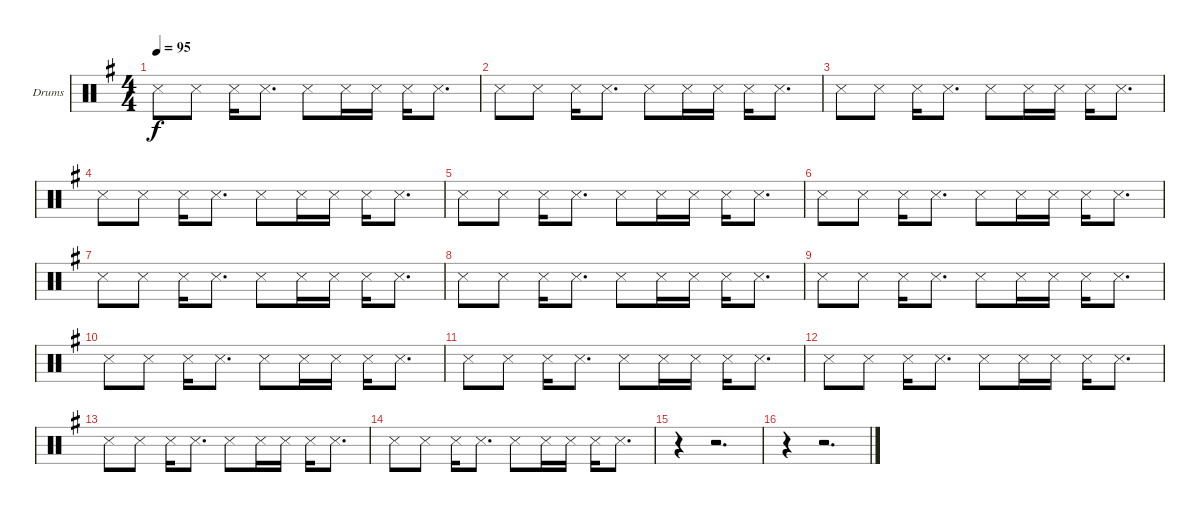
\bracketExtendMode groupsimilarinstruments
\firstSystemTrackNameOrientation horizontal
\otherSystemsTrackNameOrientation horizontal
\track ("Drumkit" "Drums") {instrument percussion}
\staff {score}
\articulation defaults
\ts (4 4)
\tempo 95
\clef neutral
\ks g "Snare (side stick) 3".8{dy f} "Snare (side stick) 3".8 "Snare (side stick) 3".16 "Snare (side stick) 3".8{d} "Snare (side stick) 3".8 "Snare (side stick) 3".16 "Snare (side stick) 3".16 "Snare (side stick) 3".16 "Snare (side stick) 3".8{d}
|
"Snare (side stick) 3".8 "Snare (side stick) 3".8 "Snare (side stick) 3".16 "Snare (side stick) 3".8{d} "Snare (side stick) 3".8 "Snare (side stick) 3".16 "Snare (side stick) 3".16 "Snare (side stick) 3".16 "Snare (side stick) 3".8{d} |
"Snare (side stick) 3".8 "Snare (side stick) 3".8 "Snare (side stick) 3".16 "Snare (side stick) 3".8{d} "Snare (side stick) 3".8 "Snare (side stick) 3".16 "Snare (side stick) 3".16 "Snare (side stick) 3".16 "Snare (side stick) 3".8{d} |
"Snare (side stick) 3".8 "Snare (side stick) 3".8 "Snare (side stick) 3".16 "Snare (side stick) 3".8{d} "Snare (side stick) 3".8 "Snare (side stick) 3".16 "Snare (side stick) 3".16 "Snare (side stick) 3".16 "Snare (side stick) 3".8{d} |
"Snare (side stick) 3".8 "Snare (side stick) 3".8 "Snare (side stick) 3".16 "Snare (side stick) 3".8{d} "Snare (side stick) 3".8 "Snare (side stick) 3".16 "Snare (side stick) 3".16 "Snare (side stick) 3".16 "Snare (side stick) 3".8{d} |
"Snare (side stick) 3".8 "Snare (side stick) 3".8 "Snare (side stick) 3".16 "Snare (side stick) 3".8{d} "Snare (side stick) 3".8 "Snare (side stick) 3".16 "Snare (side stick) 3".16 "Snare (side stick) 3".16 "Snare (side stick) 3".8{d} |
"Snare (side stick) 3".8 "Snare (side stick) 3".8 "Snare (side stick) 3".16 "Snare (side stick) 3".8{d} "Snare (side stick) 3".8 "Snare (side stick) 3".16 "Snare (side stick) 3".16 "Snare (side stick) 3".16 "Snare (side stick) 3".8{d} |
"Snare (side stick) 3".8 "Snare (side stick) 3".8 "Snare (side stick) 3".16 "Snare (side stick) 3".8{d} "Snare (side stick) 3".8 "Snare (side stick) 3".16 "Snare (side stick) 3".16 "Snare (side stick) 3".16 "Snare (side stick) 3".8{d} |
"Snare (side stick) 3".8 "Snare (side stick) 3".8 "Snare (side stick) 3".16 "Snare (side stick) 3".8{d} "Snare (side stick) 3".8 "Snare (side stick) 3".16 "Snare (side stick) 3".16 "Snare (side stick) 3".16 "Snare (side stick) 3".8{d} |
"Snare (side stick) 3".8 "Snare (side stick) 3".8 "Snare (side stick) 3".16 "Snare (side stick) 3".8{d} "Snare (side stick) 3".8 "Snare (side stick) 3".16 "Snare (side stick) 3".16 "Snare (side stick) 3".16 "Snare (side stick) 3".8{d} |
"Snare (side stick) 3".8 "Snare (side stick) 3".8 "Snare (side stick) 3".16 "Snare (side stick) 3".8{d} "Snare (side stick) 3".8 "Snare (side stick) 3".16 "Snare (side stick) 3".16 "Snare (side stick) 3".16 "Snare (side stick) 3".8{d} |
"Snare (side stick) 3".8 "Snare (side stick) 3".8 "Snare (side stick) 3".16 "Snare (side stick) 3".8{d} "Snare (side stick) 3".8 "Snare (side stick) 3".16 "Snare (side stick) 3".16 "Snare (side stick) 3".16 "Snare (side stick) 3".8{d} |
"Snare (side stick) 3".8 "Snare (side stick) 3".8 "Snare (side stick) 3".16 "Snare (side stick) 3".8{d} "Snare (side stick) 3".8 "Snare (side stick) 3".16 "Snare (side stick) 3".16 "Snare (side stick) 3".16 "Snare (side stick) 3".8{d} |
"Snare (side stick) 3".8 "Snare (side stick) 3".8 "Snare (side stick) 3".16 "Snare (side stick) 3".8{d} "Snare (side stick) 3".8 "Snare (side stick) 3".16 "Snare (side stick) 3".16 "Snare (side stick) 3".16 "Snare (side stick) 3".8{d} |
r.4 r.2{d} |
r.4 r.2{d}
